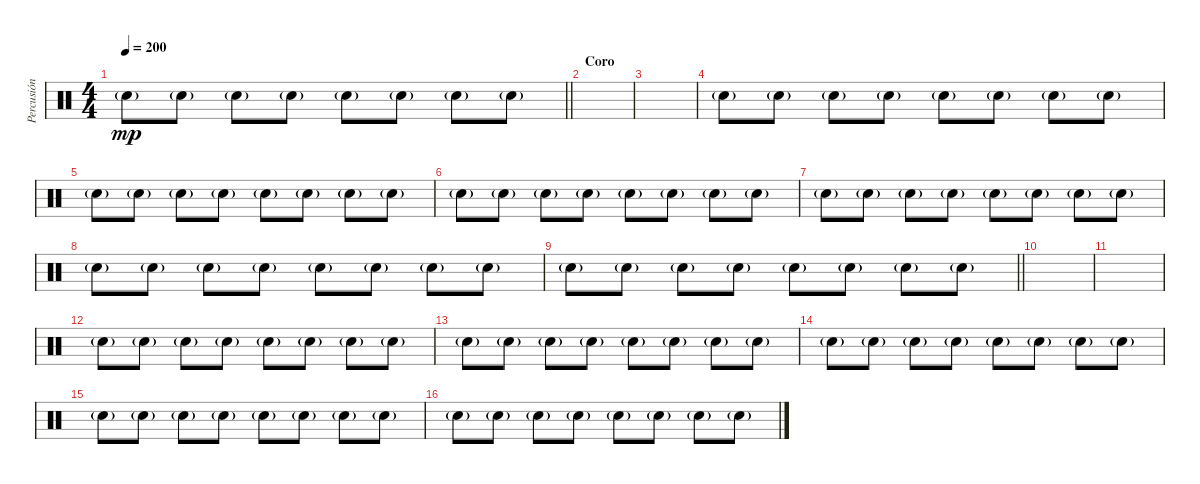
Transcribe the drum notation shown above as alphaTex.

\track ("Percusión" "Percusión") {instrument percussion}
\staff {score}
\articulation defaults
\ts (4 4)
\tempo 200
\clef neutral
\barLineRight lightlight
\ks c "Hand Clap (hit)"{g}.8{dy mp} "Hand Clap (hit)"{g}.8 "Hand Clap (hit)"{g}.8 "Hand Clap (hit)"{g}.8 "Hand Clap (hit)"{g}.8 "Hand Clap (hit)"{g}.8 "Hand Clap (hit)"{g}.8 "Hand Clap (hit)"{g}.8
|
\section ("" "Coro")
|
|
"Hand Clap (hit)"{g}.8 "Hand Clap (hit)"{g}.8 "Hand Clap (hit)"{g}.8 "Hand Clap (hit)"{g}.8 "Hand Clap (hit)"{g}.8 "Hand Clap (hit)"{g}.8 "Hand Clap (hit)"{g}.8 "Hand Clap (hit)"{g}.8 |
"Hand Clap (hit)"{g}.8 "Hand Clap (hit)"{g}.8 "Hand Clap (hit)"{g}.8 "Hand Clap (hit)"{g}.8 "Hand Clap (hit)"{g}.8 "Hand Clap (hit)"{g}.8 "Hand Clap (hit)"{g}.8 "Hand Clap (hit)"{g}.8 |
"Hand Clap (hit)"{g}.8 "Hand Clap (hit)"{g}.8 "Hand Clap (hit)"{g}.8 "Hand Clap (hit)"{g}.8 "Hand Clap (hit)"{g}.8 "Hand Clap (hit)"{g}.8 "Hand Clap (hit)"{g}.8 "Hand Clap (hit)"{g}.8 |
"Hand Clap (hit)"{g}.8 "Hand Clap (hit)"{g}.8 "Hand Clap (hit)"{g}.8 "Hand Clap (hit)"{g}.8 "Hand Clap (hit)"{g}.8 "Hand Clap (hit)"{g}.8 "Hand Clap (hit)"{g}.8 "Hand Clap (hit)"{g}.8 |
"Hand Clap (hit)"{g}.8 "Hand Clap (hit)"{g}.8 "Hand Clap (hit)"{g}.8 "Hand Clap (hit)"{g}.8 "Hand Clap (hit)"{g}.8 "Hand Clap (hit)"{g}.8 "Hand Clap (hit)"{g}.8 "Hand Clap (hit)"{g}.8 |
\barLineRight lightlight "Hand Clap (hit)"{g}.8 "Hand Clap (hit)"{g}.8 "Hand Clap (hit)"{g}.8 "Hand Clap (hit)"{g}.8 "Hand Clap (hit)"{g}.8 "Hand Clap (hit)"{g}.8 "Hand Clap (hit)"{g}.8 "Hand Clap (hit)"{g}.8
|
|
|
"Hand Clap (hit)"{g}.8 "Hand Clap (hit)"{g}.8 "Hand Clap (hit)"{g}.8 "Hand Clap (hit)"{g}.8 "Hand Clap (hit)"{g}.8 "Hand Clap (hit)"{g}.8 "Hand Clap (hit)"{g}.8 "Hand Clap (hit)"{g}.8 |
"Hand Clap (hit)"{g}.8 "Hand Clap (hit)"{g}.8 "Hand Clap (hit)"{g}.8 "Hand Clap (hit)"{g}.8 "Hand Clap (hit)"{g}.8 "Hand Clap (hit)"{g}.8 "Hand Clap (hit)"{g}.8 "Hand Clap (hit)"{g}.8 |
"Hand Clap (hit)"{g}.8 "Hand Clap (hit)"{g}.8 "Hand Clap (hit)"{g}.8 "Hand Clap (hit)"{g}.8 "Hand Clap (hit)"{g}.8 "Hand Clap (hit)"{g}.8 "Hand Clap (hit)"{g}.8 "Hand Clap (hit)"{g}.8 |
"Hand Clap (hit)"{g}.8 "Hand Clap (hit)"{g}.8 "Hand Clap (hit)"{g}.8 "Hand Clap (hit)"{g}.8 "Hand Clap (hit)"{g}.8 "Hand Clap (hit)"{g}.8 "Hand Clap (hit)"{g}.8 "Hand Clap (hit)"{g}.8 |
"Hand Clap (hit)"{g}.8 "Hand Clap (hit)"{g}.8 "Hand Clap (hit)"{g}.8 "Hand Clap (hit)"{g}.8 "Hand Clap (hit)"{g}.8 "Hand Clap (hit)"{g}.8 "Hand Clap (hit)"{g}.8 "Hand Clap (hit)"{g}.8
